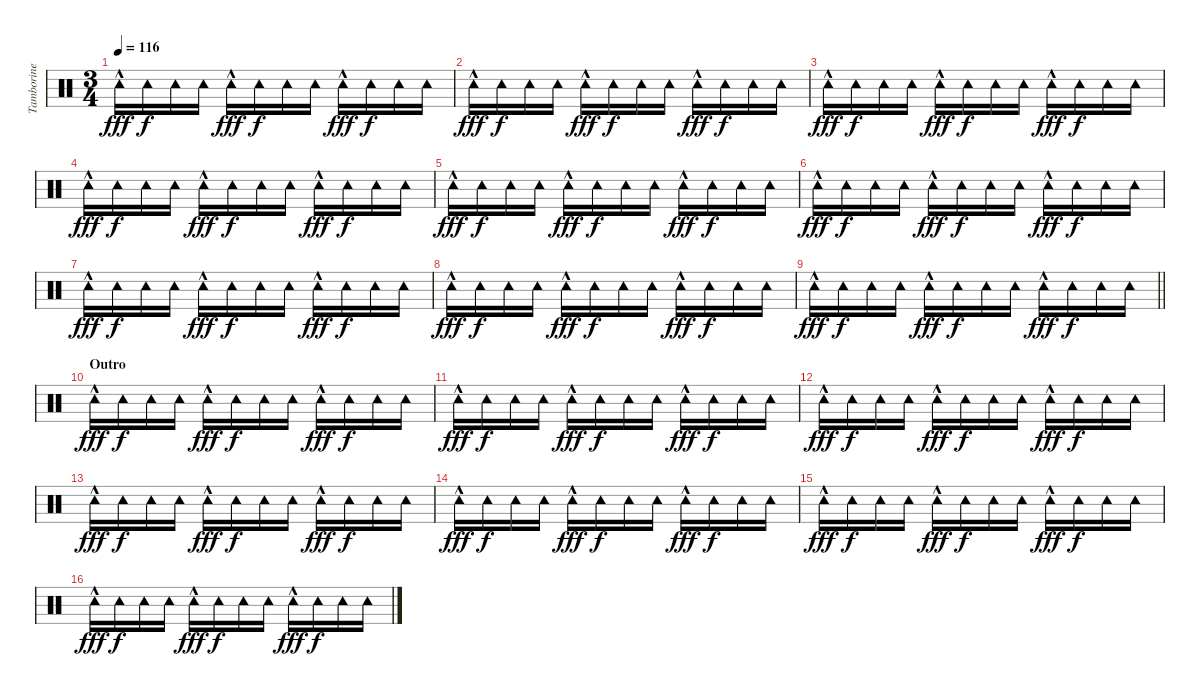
\track ("Tamborine" "Tamborine") {instrument percussion}
\staff {score}
\articulation defaults
\ts (3 4)
\tempo 116
\clef neutral
\ks c "Tambourine (hit)"{hac}.16{dy fff} "Tambourine (hit)".16{dy f} "Tambourine (hit)".16 "Tambourine (hit)".16 "Tambourine (hit)"{hac}.16{dy fff} "Tambourine (hit)".16{dy f} "Tambourine (hit)".16 "Tambourine (hit)".16 "Tambourine (hit)"{hac}.16{dy fff} "Tambourine (hit)".16{dy f} "Tambourine (hit)".16 "Tambourine (hit)".16
|
"Tambourine (hit)"{hac}.16{dy fff} "Tambourine (hit)".16{dy f} "Tambourine (hit)".16 "Tambourine (hit)".16 "Tambourine (hit)"{hac}.16{dy fff} "Tambourine (hit)".16{dy f} "Tambourine (hit)".16 "Tambourine (hit)".16 "Tambourine (hit)"{hac}.16{dy fff} "Tambourine (hit)".16{dy f} "Tambourine (hit)".16 "Tambourine (hit)".16 |
"Tambourine (hit)"{hac}.16{dy fff} "Tambourine (hit)".16{dy f} "Tambourine (hit)".16 "Tambourine (hit)".16 "Tambourine (hit)"{hac}.16{dy fff} "Tambourine (hit)".16{dy f} "Tambourine (hit)".16 "Tambourine (hit)".16 "Tambourine (hit)"{hac}.16{dy fff} "Tambourine (hit)".16{dy f} "Tambourine (hit)".16 "Tambourine (hit)".16 |
"Tambourine (hit)"{hac}.16{dy fff} "Tambourine (hit)".16{dy f} "Tambourine (hit)".16 "Tambourine (hit)".16 "Tambourine (hit)"{hac}.16{dy fff} "Tambourine (hit)".16{dy f} "Tambourine (hit)".16 "Tambourine (hit)".16 "Tambourine (hit)"{hac}.16{dy fff} "Tambourine (hit)".16{dy f} "Tambourine (hit)".16 "Tambourine (hit)".16 |
"Tambourine (hit)"{hac}.16{dy fff} "Tambourine (hit)".16{dy f} "Tambourine (hit)".16 "Tambourine (hit)".16 "Tambourine (hit)"{hac}.16{dy fff} "Tambourine (hit)".16{dy f} "Tambourine (hit)".16 "Tambourine (hit)".16 "Tambourine (hit)"{hac}.16{dy fff} "Tambourine (hit)".16{dy f} "Tambourine (hit)".16 "Tambourine (hit)".16 |
"Tambourine (hit)"{hac}.16{dy fff} "Tambourine (hit)".16{dy f} "Tambourine (hit)".16 "Tambourine (hit)".16 "Tambourine (hit)"{hac}.16{dy fff} "Tambourine (hit)".16{dy f} "Tambourine (hit)".16 "Tambourine (hit)".16 "Tambourine (hit)"{hac}.16{dy fff} "Tambourine (hit)".16{dy f} "Tambourine (hit)".16 "Tambourine (hit)".16 |
"Tambourine (hit)"{hac}.16{dy fff} "Tambourine (hit)".16{dy f} "Tambourine (hit)".16 "Tambourine (hit)".16 "Tambourine (hit)"{hac}.16{dy fff} "Tambourine (hit)".16{dy f} "Tambourine (hit)".16 "Tambourine (hit)".16 "Tambourine (hit)"{hac}.16{dy fff} "Tambourine (hit)".16{dy f} "Tambourine (hit)".16 "Tambourine (hit)".16 |
"Tambourine (hit)"{hac}.16{dy fff} "Tambourine (hit)".16{dy f} "Tambourine (hit)".16 "Tambourine (hit)".16 "Tambourine (hit)"{hac}.16{dy fff} "Tambourine (hit)".16{dy f} "Tambourine (hit)".16 "Tambourine (hit)".16 "Tambourine (hit)"{hac}.16{dy fff} "Tambourine (hit)".16{dy f} "Tambourine (hit)".16 "Tambourine (hit)".16 |
\barLineRight lightlight "Tambourine (hit)"{hac}.16{dy fff} "Tambourine (hit)".16{dy f} "Tambourine (hit)".16 "Tambourine (hit)".16 "Tambourine (hit)"{hac}.16{dy fff} "Tambourine (hit)".16{dy f} "Tambourine (hit)".16 "Tambourine (hit)".16 "Tambourine (hit)"{hac}.16{dy fff} "Tambourine (hit)".16{dy f} "Tambourine (hit)".16 "Tambourine (hit)".16
|
\section ("" "Outro")
"Tambourine (hit)"{hac}.16{dy fff} "Tambourine (hit)".16{dy f} "Tambourine (hit)".16 "Tambourine (hit)".16 "Tambourine (hit)"{hac}.16{dy fff} "Tambourine (hit)".16{dy f} "Tambourine (hit)".16 "Tambourine (hit)".16 "Tambourine (hit)"{hac}.16{dy fff} "Tambourine (hit)".16{dy f} "Tambourine (hit)".16 "Tambourine (hit)".16 |
"Tambourine (hit)"{hac}.16{dy fff} "Tambourine (hit)".16{dy f} "Tambourine (hit)".16 "Tambourine (hit)".16 "Tambourine (hit)"{hac}.16{dy fff} "Tambourine (hit)".16{dy f} "Tambourine (hit)".16 "Tambourine (hit)".16 "Tambourine (hit)"{hac}.16{dy fff} "Tambourine (hit)".16{dy f} "Tambourine (hit)".16 "Tambourine (hit)".16 |
"Tambourine (hit)"{hac}.16{dy fff} "Tambourine (hit)".16{dy f} "Tambourine (hit)".16 "Tambourine (hit)".16 "Tambourine (hit)"{hac}.16{dy fff} "Tambourine (hit)".16{dy f} "Tambourine (hit)".16 "Tambourine (hit)".16 "Tambourine (hit)"{hac}.16{dy fff} "Tambourine (hit)".16{dy f} "Tambourine (hit)".16 "Tambourine (hit)".16 |
"Tambourine (hit)"{hac}.16{dy fff} "Tambourine (hit)".16{dy f} "Tambourine (hit)".16 "Tambourine (hit)".16 "Tambourine (hit)"{hac}.16{dy fff} "Tambourine (hit)".16{dy f} "Tambourine (hit)".16 "Tambourine (hit)".16 "Tambourine (hit)"{hac}.16{dy fff} "Tambourine (hit)".16{dy f} "Tambourine (hit)".16 "Tambourine (hit)".16 |
"Tambourine (hit)"{hac}.16{dy fff} "Tambourine (hit)".16{dy f} "Tambourine (hit)".16 "Tambourine (hit)".16 "Tambourine (hit)"{hac}.16{dy fff} "Tambourine (hit)".16{dy f} "Tambourine (hit)".16 "Tambourine (hit)".16 "Tambourine (hit)"{hac}.16{dy fff} "Tambourine (hit)".16{dy f} "Tambourine (hit)".16 "Tambourine (hit)".16 |
"Tambourine (hit)"{hac}.16{dy fff} "Tambourine (hit)".16{dy f} "Tambourine (hit)".16 "Tambourine (hit)".16 "Tambourine (hit)"{hac}.16{dy fff} "Tambourine (hit)".16{dy f} "Tambourine (hit)".16 "Tambourine (hit)".16 "Tambourine (hit)"{hac}.16{dy fff} "Tambourine (hit)".16{dy f} "Tambourine (hit)".16 "Tambourine (hit)".16 |
"Tambourine (hit)"{hac}.16{dy fff} "Tambourine (hit)".16{dy f} "Tambourine (hit)".16 "Tambourine (hit)".16 "Tambourine (hit)"{hac}.16{dy fff} "Tambourine (hit)".16{dy f} "Tambourine (hit)".16 "Tambourine (hit)".16 "Tambourine (hit)"{hac}.16{dy fff} "Tambourine (hit)".16{dy f} "Tambourine (hit)".16 "Tambourine (hit)".16
